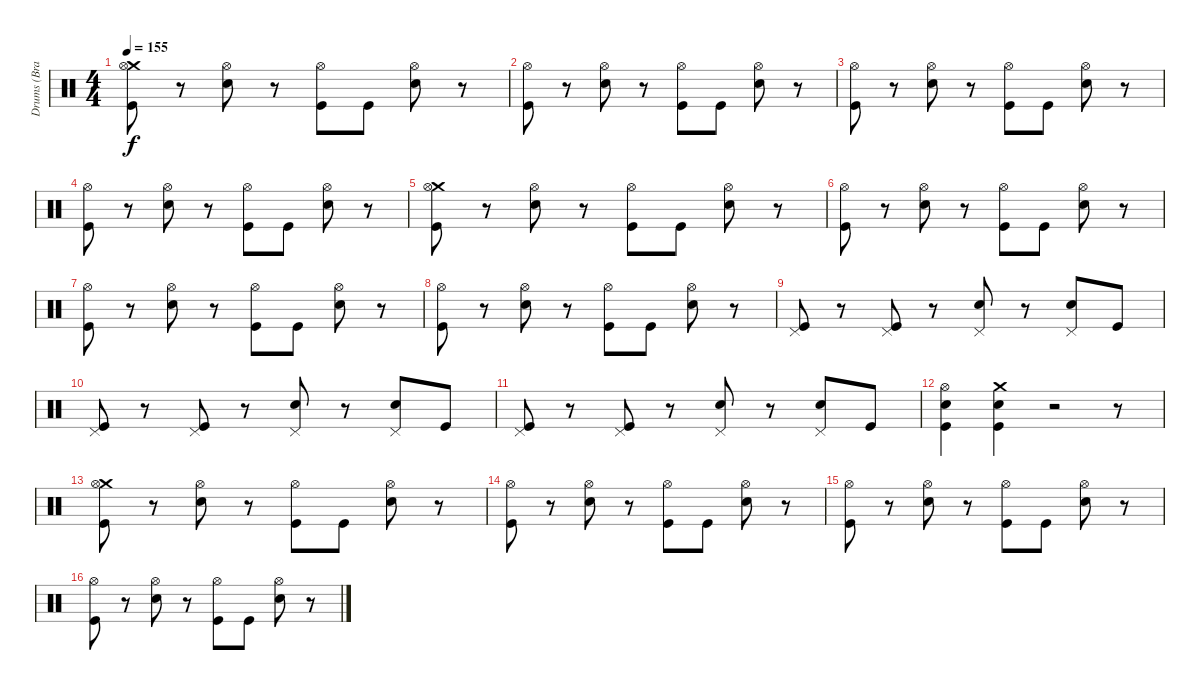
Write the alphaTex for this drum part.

\track ("Drums (Bradie Webb)" "Drums (Bra") {instrument percussion}
\staff {score}
\articulation defaults
\ts (4 4)
\tempo 155
\clef neutral
\ks c
("Crash medium (hit)" "Hi-Hat (open)" "Kick (hit)").8{dy f} r.8 ("Hi-Hat (open)" "Snare (hit) 2").8 r.8 ("Hi-Hat (open)" "Kick (hit)").8 "Kick (hit)".8 ("Hi-Hat (open)" "Snare (hit) 2").8 r.8 |
("Hi-Hat (open)" "Kick (hit)").8 r.8 ("Hi-Hat (open)" "Snare (hit) 2").8 r.8 ("Hi-Hat (open)" "Kick (hit)").8 "Kick (hit)".8 ("Hi-Hat (open)" "Snare (hit) 2").8 r.8 |
("Hi-Hat (open)" "Kick (hit)").8 r.8 ("Hi-Hat (open)" "Snare (hit) 2").8 r.8 ("Hi-Hat (open)" "Kick (hit)").8 "Kick (hit)".8 ("Hi-Hat (open)" "Snare (hit) 2").8 r.8 |
("Hi-Hat (open)" "Kick (hit)").8 r.8 ("Hi-Hat (open)" "Snare (hit) 2").8 r.8 ("Hi-Hat (open)" "Kick (hit)").8 "Kick (hit)".8 ("Hi-Hat (open)" "Snare (hit) 2").8 r.8 |
("Crash medium (hit)" "Hi-Hat (open)" "Kick (hit)").8 r.8 ("Hi-Hat (open)" "Snare (hit) 2").8 r.8 ("Hi-Hat (open)" "Kick (hit)").8 "Kick (hit)".8 ("Hi-Hat (open)" "Snare (hit) 2").8 r.8 |
("Hi-Hat (open)" "Kick (hit)").8 r.8 ("Hi-Hat (open)" "Snare (hit) 2").8 r.8 ("Hi-Hat (open)" "Kick (hit)").8 "Kick (hit)".8 ("Hi-Hat (open)" "Snare (hit) 2").8 r.8 |
("Hi-Hat (open)" "Kick (hit)").8 r.8 ("Hi-Hat (open)" "Snare (hit) 2").8 r.8 ("Hi-Hat (open)" "Kick (hit)").8 "Kick (hit)".8 ("Hi-Hat (open)" "Snare (hit) 2").8 r.8 |
("Hi-Hat (open)" "Kick (hit)").8 r.8 ("Hi-Hat (open)" "Snare (hit) 2").8 r.8 ("Hi-Hat (open)" "Kick (hit)").8 "Kick (hit)".8 ("Hi-Hat (open)" "Snare (hit) 2").8 r.8 |
("Pedal Hi-Hat (hit)" "Kick (hit)").8 r.8 ("Pedal Hi-Hat (hit)" "Kick (hit)").8 r.8 ("Pedal Hi-Hat (hit)" "Snare (hit) 2").8 r.8 ("Pedal Hi-Hat (hit)" "Snare (hit) 2").8 "Kick (hit)".8 |
("Pedal Hi-Hat (hit)" "Kick (hit)").8 r.8 ("Pedal Hi-Hat (hit)" "Kick (hit)").8 r.8 ("Pedal Hi-Hat (hit)" "Snare (hit) 2").8 r.8 ("Pedal Hi-Hat (hit)" "Snare (hit) 2").8 "Kick (hit)".8 |
("Pedal Hi-Hat (hit)" "Kick (hit)").8 r.8 ("Pedal Hi-Hat (hit)" "Kick (hit)").8 r.8 ("Pedal Hi-Hat (hit)" "Snare (hit) 2").8 r.8 ("Pedal Hi-Hat (hit)" "Snare (hit) 2").8 "Kick (hit)".8 |
("Hi-Hat (open)" "Kick (hit)" "Snare (hit) 2").4 ("Crash medium (hit)" "Kick (hit)" "Snare (hit) 2").4 r.2 r.8 |
("Crash medium (hit)" "Hi-Hat (open)" "Kick (hit)").8 r.8 ("Hi-Hat (open)" "Snare (hit) 2").8 r.8 ("Hi-Hat (open)" "Kick (hit)").8 "Kick (hit)".8 ("Hi-Hat (open)" "Snare (hit) 2").8 r.8 |
("Hi-Hat (open)" "Kick (hit)").8 r.8 ("Hi-Hat (open)" "Snare (hit) 2").8 r.8 ("Hi-Hat (open)" "Kick (hit)").8 "Kick (hit)".8 ("Hi-Hat (open)" "Snare (hit) 2").8 r.8 |
("Hi-Hat (open)" "Kick (hit)").8 r.8 ("Hi-Hat (open)" "Snare (hit) 2").8 r.8 ("Hi-Hat (open)" "Kick (hit)").8 "Kick (hit)".8 ("Hi-Hat (open)" "Snare (hit) 2").8 r.8 |
("Hi-Hat (open)" "Kick (hit)").8 r.8 ("Hi-Hat (open)" "Snare (hit) 2").8 r.8 ("Hi-Hat (open)" "Kick (hit)").8 "Kick (hit)".8 ("Hi-Hat (open)" "Snare (hit) 2").8 r.8
